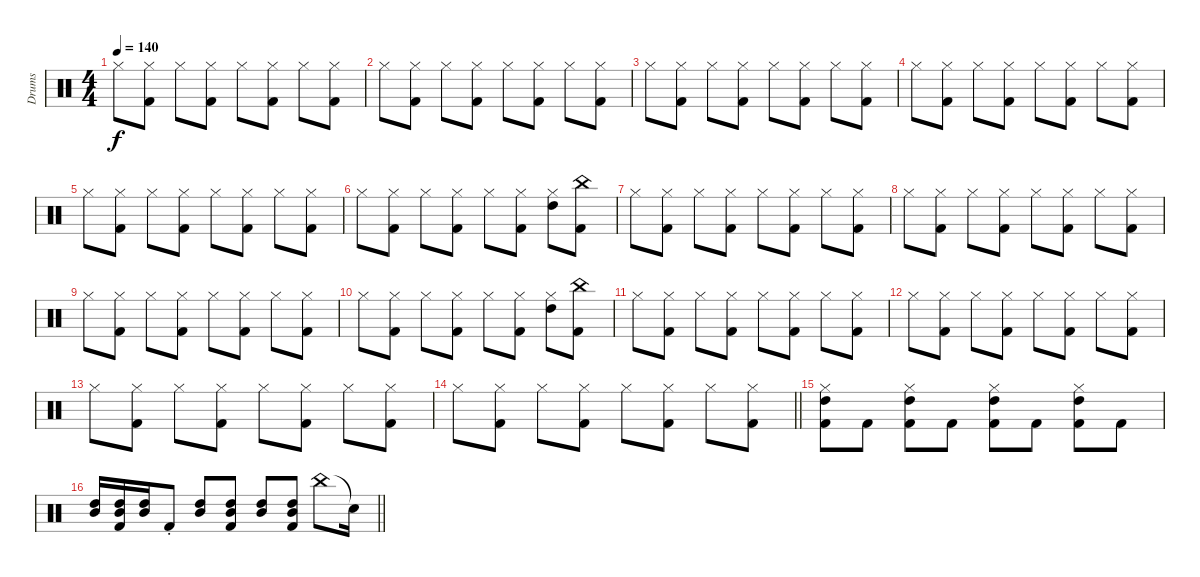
\track ("Drums" "Drums") {instrument percussion}
\staff {score}
\articulation defaults
\ts (4 4)
\tempo 140
\clef neutral
\ks c "Hi-Hat (closed)".8{dy f}
("Hi-Hat (closed)" "Kick (hit) 2").8 "Hi-Hat (closed)".8 ("Hi-Hat (closed)" "Kick (hit) 2").8 "Hi-Hat (closed)".8 ("Hi-Hat (closed)" "Kick (hit) 2").8 "Hi-Hat (closed)".8 ("Hi-Hat (closed)" "Kick (hit) 2").8 |
"Hi-Hat (closed)".8 ("Hi-Hat (closed)" "Kick (hit) 2").8 "Hi-Hat (closed)".8 ("Hi-Hat (closed)" "Kick (hit) 2").8 "Hi-Hat (closed)".8 ("Hi-Hat (closed)" "Kick (hit) 2").8 "Hi-Hat (closed)".8 ("Hi-Hat (closed)" "Kick (hit) 2").8 |
"Hi-Hat (closed)".8 ("Hi-Hat (closed)" "Kick (hit) 2").8 "Hi-Hat (closed)".8 ("Hi-Hat (closed)" "Kick (hit) 2").8 "Hi-Hat (closed)".8 ("Hi-Hat (closed)" "Kick (hit) 2").8 "Hi-Hat (closed)".8 ("Hi-Hat (closed)" "Kick (hit) 2").8 |
"Hi-Hat (closed)".8 ("Hi-Hat (closed)" "Kick (hit) 2").8 "Hi-Hat (closed)".8 ("Hi-Hat (closed)" "Kick (hit) 2").8 "Hi-Hat (closed)".8 ("Hi-Hat (closed)" "Kick (hit) 2").8 "Hi-Hat (closed)".8 ("Hi-Hat (closed)" "Kick (hit) 2").8 |
"Hi-Hat (closed)".8 ("Hi-Hat (closed)" "Kick (hit) 2").8 "Hi-Hat (closed)".8 ("Hi-Hat (closed)" "Kick (hit) 2").8 "Hi-Hat (closed)".8 ("Hi-Hat (closed)" "Kick (hit) 2").8 "Hi-Hat (closed)".8 ("Hi-Hat (closed)" "Kick (hit) 2").8 |
"Hi-Hat (closed)".8 ("Hi-Hat (closed)" "Kick (hit) 2").8 "Hi-Hat (closed)".8 ("Hi-Hat (closed)" "Kick (hit) 2").8 "Hi-Hat (closed)".8 ("Hi-Hat (closed)" "Kick (hit) 2").8 ("Hi-Hat (closed)" "High Tom (hit)").8 ("China (hit)" "Kick (hit) 2").8 |
"Hi-Hat (closed)".8 ("Hi-Hat (closed)" "Kick (hit) 2").8 "Hi-Hat (closed)".8 ("Hi-Hat (closed)" "Kick (hit) 2").8 "Hi-Hat (closed)".8 ("Hi-Hat (closed)" "Kick (hit) 2").8 "Hi-Hat (closed)".8 ("Hi-Hat (closed)" "Kick (hit) 2").8 |
"Hi-Hat (closed)".8 ("Hi-Hat (closed)" "Kick (hit) 2").8 "Hi-Hat (closed)".8 ("Hi-Hat (closed)" "Kick (hit) 2").8 "Hi-Hat (closed)".8 ("Hi-Hat (closed)" "Kick (hit) 2").8 "Hi-Hat (closed)".8 ("Hi-Hat (closed)" "Kick (hit) 2").8 |
"Hi-Hat (closed)".8 ("Hi-Hat (closed)" "Kick (hit) 2").8 "Hi-Hat (closed)".8 ("Hi-Hat (closed)" "Kick (hit) 2").8 "Hi-Hat (closed)".8 ("Hi-Hat (closed)" "Kick (hit) 2").8 "Hi-Hat (closed)".8 ("Hi-Hat (closed)" "Kick (hit) 2").8 |
"Hi-Hat (closed)".8 ("Hi-Hat (closed)" "Kick (hit) 2").8 "Hi-Hat (closed)".8 ("Hi-Hat (closed)" "Kick (hit) 2").8 "Hi-Hat (closed)".8 ("Hi-Hat (closed)" "Kick (hit) 2").8 ("Hi-Hat (closed)" "High Tom (hit)").8 ("China (hit)" "Kick (hit) 2").8 |
"Hi-Hat (closed)".8 ("Hi-Hat (closed)" "Kick (hit) 2").8 "Hi-Hat (closed)".8 ("Hi-Hat (closed)" "Kick (hit) 2").8 "Hi-Hat (closed)".8 ("Hi-Hat (closed)" "Kick (hit) 2").8 "Hi-Hat (closed)".8 ("Hi-Hat (closed)" "Kick (hit) 2").8 |
"Hi-Hat (closed)".8 ("Hi-Hat (closed)" "Kick (hit) 2").8 "Hi-Hat (closed)".8 ("Hi-Hat (closed)" "Kick (hit) 2").8 "Hi-Hat (closed)".8 ("Hi-Hat (closed)" "Kick (hit) 2").8 "Hi-Hat (closed)".8 ("Hi-Hat (closed)" "Kick (hit) 2").8 |
"Hi-Hat (closed)".8 ("Hi-Hat (closed)" "Kick (hit) 2").8 "Hi-Hat (closed)".8 ("Hi-Hat (closed)" "Kick (hit) 2").8 "Hi-Hat (closed)".8 ("Hi-Hat (closed)" "Kick (hit) 2").8 "Hi-Hat (closed)".8 ("Hi-Hat (closed)" "Kick (hit) 2").8 |
\barLineRight lightlight "Hi-Hat (closed)".8
("Hi-Hat (closed)" "Kick (hit) 2").8 "Hi-Hat (closed)".8 ("Hi-Hat (closed)" "Kick (hit) 2").8 "Hi-Hat (closed)".8 ("Hi-Hat (closed)" "Kick (hit) 2").8 "Hi-Hat (closed)".8 ("Hi-Hat (closed)" "Kick (hit) 2").8 |
("Hi-Hat (closed)" "High Tom (hit)" "Kick (hit) 2").8 "Kick (hit) 2".8 ("Hi-Hat (closed)" "High Tom (hit)" "Kick (hit) 2").8 "Kick (hit) 2".8 ("Hi-Hat (closed)" "High Tom (hit)" "Kick (hit) 2").8 "Kick (hit) 2".8 ("Hi-Hat (closed)" "High Tom (hit)" "Kick (hit) 2").8 "Kick (hit) 2".8 |
\barLineRight lightlight
("Mid Tom (hit)" "High Tom (hit)").16 ("Mid Tom (hit)" "High Tom (hit)" "Kick (hit) 2").16 ("Mid Tom (hit)" "High Tom (hit)").16 "Kick (hit) 2"{st}.8 ("Mid Tom (hit)" "High Tom (hit)").8 ("Mid Tom (hit)" "High Tom (hit)" "Kick (hit) 2").8 ("Mid Tom (hit)" "High Tom (hit)").8 ("Mid Tom (hit)" "High Tom (hit)" "Kick (hit) 2").8 "China (hit)".8 "Snare (hit)"{t}.16
